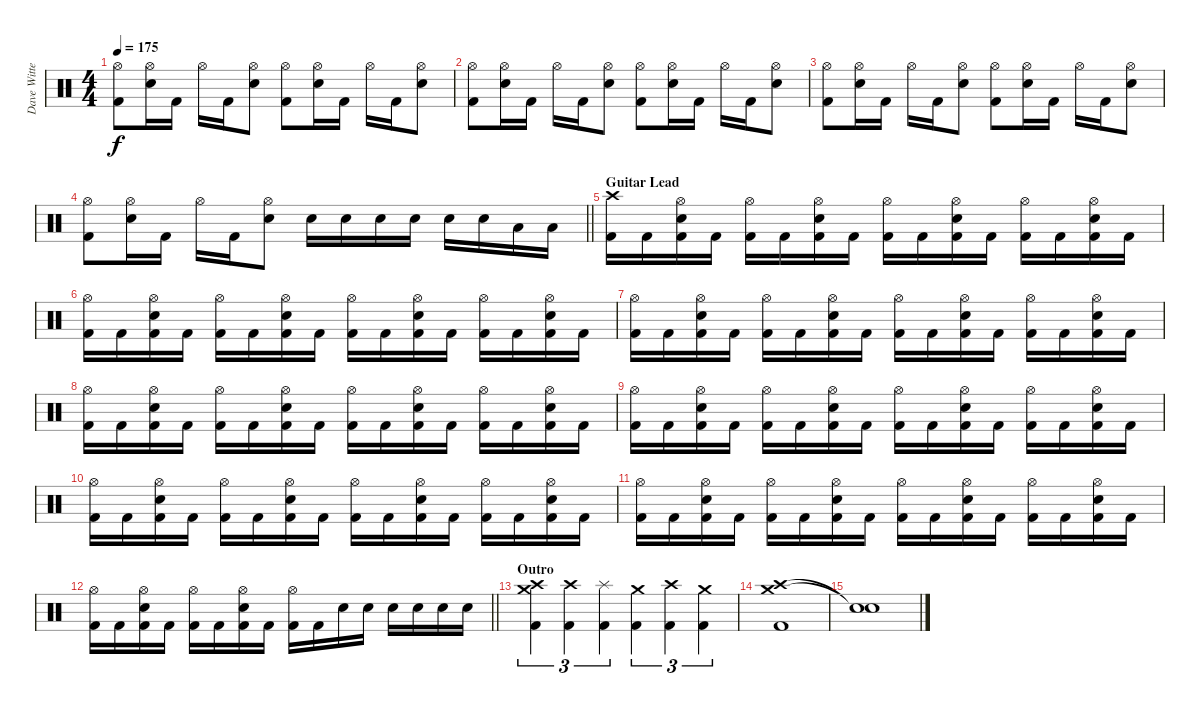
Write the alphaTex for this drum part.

\track ("Dave Witte" "Dave Witte") {instrument percussion}
\staff {score}
\articulation defaults
\ts (4 4)
\tempo 175
\clef neutral
\ks c
("Hi-Hat (open)" "Kick (hit) 2").8{dy f} ("Hi-Hat (open)" "Electric Snare (hit)").16 "Kick (hit) 2".16 "Hi-Hat (open)".16 "Kick (hit) 2".16 ("Hi-Hat (open)" "Electric Snare (hit)").8 ("Hi-Hat (open)" "Kick (hit) 2").8 ("Hi-Hat (open)" "Electric Snare (hit)").16 "Kick (hit) 2".16 "Hi-Hat (open)".16 "Kick (hit) 2".16 ("Hi-Hat (open)" "Electric Snare (hit)").8 |
("Hi-Hat (open)" "Kick (hit) 2").8 ("Hi-Hat (open)" "Electric Snare (hit)").16 "Kick (hit) 2".16 "Hi-Hat (open)".16 "Kick (hit) 2".16 ("Hi-Hat (open)" "Electric Snare (hit)").8 ("Hi-Hat (open)" "Kick (hit) 2").8 ("Hi-Hat (open)" "Electric Snare (hit)").16 "Kick (hit) 2".16 "Hi-Hat (open)".16 "Kick (hit) 2".16 ("Hi-Hat (open)" "Electric Snare (hit)").8 |
("Hi-Hat (open)" "Kick (hit) 2").8 ("Hi-Hat (open)" "Electric Snare (hit)").16 "Kick (hit) 2".16 "Hi-Hat (open)".16 "Kick (hit) 2".16 ("Hi-Hat (open)" "Electric Snare (hit)").8 ("Hi-Hat (open)" "Kick (hit) 2").8 ("Hi-Hat (open)" "Electric Snare (hit)").16 "Kick (hit) 2".16 "Hi-Hat (open)".16 "Kick (hit) 2".16 ("Hi-Hat (open)" "Electric Snare (hit)").8 |
\barLineRight lightlight
("Hi-Hat (open)" "Kick (hit) 2").8 ("Hi-Hat (open)" "Electric Snare (hit)").16 "Kick (hit) 2".16 "Hi-Hat (open)".16 "Kick (hit) 2".16 ("Hi-Hat (open)" "Electric Snare (hit)").8 "Electric Snare (hit)".16 "Electric Snare (hit)".16 "Electric Snare (hit)".16 "Electric Snare (hit)".16 "Electric Snare (hit)".16 "Electric Snare (hit)".16 "Low Tom (hit)".16 "Low Tom (hit)".16 |
\section ("" "Guitar Lead")
("Crash high (hit)" "Kick (hit) 2").16 "Kick (hit) 2".16 ("Hi-Hat (open)" "Electric Snare (hit)" "Kick (hit) 2").16 "Kick (hit) 2".16 ("Hi-Hat (open)" "Kick (hit) 2").16 "Kick (hit) 2".16 ("Hi-Hat (open)" "Electric Snare (hit)" "Kick (hit) 2").16 "Kick (hit) 2".16 ("Hi-Hat (open)" "Kick (hit) 2").16 "Kick (hit) 2".16 ("Hi-Hat (open)" "Electric Snare (hit)" "Kick (hit) 2").16 "Kick (hit) 2".16 ("Hi-Hat (open)" "Kick (hit) 2").16 "Kick (hit) 2".16 ("Hi-Hat (open)" "Electric Snare (hit)" "Kick (hit) 2").16 "Kick (hit) 2".16 |
("Hi-Hat (open)" "Kick (hit) 2").16 "Kick (hit) 2".16 ("Hi-Hat (open)" "Electric Snare (hit)" "Kick (hit) 2").16 "Kick (hit) 2".16 ("Hi-Hat (open)" "Kick (hit) 2").16 "Kick (hit) 2".16 ("Hi-Hat (open)" "Electric Snare (hit)" "Kick (hit) 2").16 "Kick (hit) 2".16 ("Hi-Hat (open)" "Kick (hit) 2").16 "Kick (hit) 2".16 ("Hi-Hat (open)" "Electric Snare (hit)" "Kick (hit) 2").16 "Kick (hit) 2".16 ("Hi-Hat (open)" "Kick (hit) 2").16 "Kick (hit) 2".16 ("Hi-Hat (open)" "Electric Snare (hit)" "Kick (hit) 2").16 "Kick (hit) 2".16 |
("Hi-Hat (open)" "Kick (hit) 2").16 "Kick (hit) 2".16 ("Hi-Hat (open)" "Electric Snare (hit)" "Kick (hit) 2").16 "Kick (hit) 2".16 ("Hi-Hat (open)" "Kick (hit) 2").16 "Kick (hit) 2".16 ("Hi-Hat (open)" "Electric Snare (hit)" "Kick (hit) 2").16 "Kick (hit) 2".16 ("Hi-Hat (open)" "Kick (hit) 2").16 "Kick (hit) 2".16 ("Hi-Hat (open)" "Electric Snare (hit)" "Kick (hit) 2").16 "Kick (hit) 2".16 ("Hi-Hat (open)" "Kick (hit) 2").16 "Kick (hit) 2".16 ("Hi-Hat (open)" "Electric Snare (hit)" "Kick (hit) 2").16 "Kick (hit) 2".16 |
("Hi-Hat (open)" "Kick (hit) 2").16 "Kick (hit) 2".16 ("Hi-Hat (open)" "Electric Snare (hit)" "Kick (hit) 2").16 "Kick (hit) 2".16 ("Hi-Hat (open)" "Kick (hit) 2").16 "Kick (hit) 2".16 ("Hi-Hat (open)" "Electric Snare (hit)" "Kick (hit) 2").16 "Kick (hit) 2".16 ("Hi-Hat (open)" "Kick (hit) 2").16 "Kick (hit) 2".16 ("Hi-Hat (open)" "Electric Snare (hit)" "Kick (hit) 2").16 "Kick (hit) 2".16 ("Hi-Hat (open)" "Kick (hit) 2").16 "Kick (hit) 2".16 ("Hi-Hat (open)" "Electric Snare (hit)" "Kick (hit) 2").16 "Kick (hit) 2".16 |
("Hi-Hat (open)" "Kick (hit) 2").16 "Kick (hit) 2".16 ("Hi-Hat (open)" "Electric Snare (hit)" "Kick (hit) 2").16 "Kick (hit) 2".16 ("Hi-Hat (open)" "Kick (hit) 2").16 "Kick (hit) 2".16 ("Hi-Hat (open)" "Electric Snare (hit)" "Kick (hit) 2").16 "Kick (hit) 2".16 ("Hi-Hat (open)" "Kick (hit) 2").16 "Kick (hit) 2".16 ("Hi-Hat (open)" "Electric Snare (hit)" "Kick (hit) 2").16 "Kick (hit) 2".16 ("Hi-Hat (open)" "Kick (hit) 2").16 "Kick (hit) 2".16 ("Hi-Hat (open)" "Electric Snare (hit)" "Kick (hit) 2").16 "Kick (hit) 2".16 |
("Hi-Hat (open)" "Kick (hit) 2").16 "Kick (hit) 2".16 ("Hi-Hat (open)" "Electric Snare (hit)" "Kick (hit) 2").16 "Kick (hit) 2".16 ("Hi-Hat (open)" "Kick (hit) 2").16 "Kick (hit) 2".16 ("Hi-Hat (open)" "Electric Snare (hit)" "Kick (hit) 2").16 "Kick (hit) 2".16 ("Hi-Hat (open)" "Kick (hit) 2").16 "Kick (hit) 2".16 ("Hi-Hat (open)" "Electric Snare (hit)" "Kick (hit) 2").16 "Kick (hit) 2".16 ("Hi-Hat (open)" "Kick (hit) 2").16 "Kick (hit) 2".16 ("Hi-Hat (open)" "Electric Snare (hit)" "Kick (hit) 2").16 "Kick (hit) 2".16 |
("Hi-Hat (open)" "Kick (hit) 2").16 "Kick (hit) 2".16 ("Hi-Hat (open)" "Electric Snare (hit)" "Kick (hit) 2").16 "Kick (hit) 2".16 ("Hi-Hat (open)" "Kick (hit) 2").16 "Kick (hit) 2".16 ("Hi-Hat (open)" "Electric Snare (hit)" "Kick (hit) 2").16 "Kick (hit) 2".16 ("Hi-Hat (open)" "Kick (hit) 2").16 "Kick (hit) 2".16 ("Hi-Hat (open)" "Electric Snare (hit)" "Kick (hit) 2").16 "Kick (hit) 2".16 ("Hi-Hat (open)" "Kick (hit) 2").16 "Kick (hit) 2".16 ("Hi-Hat (open)" "Electric Snare (hit)" "Kick (hit) 2").16 "Kick (hit) 2".16 |
\barLineRight lightlight
("Hi-Hat (open)" "Kick (hit) 2").16 "Kick (hit) 2".16 ("Hi-Hat (open)" "Electric Snare (hit)" "Kick (hit) 2").16 "Kick (hit) 2".16 ("Hi-Hat (open)" "Kick (hit) 2").16 "Kick (hit) 2".16 ("Hi-Hat (open)" "Electric Snare (hit)" "Kick (hit) 2").16 "Kick (hit) 2".16 ("Hi-Hat (open)" "Kick (hit) 2").16 "Kick (hit) 2".16 "Electric Snare (hit)".16 "Electric Snare (hit)".16 "Electric Snare (hit)".16 "Electric Snare (hit)".16 "Electric Snare (hit)".16 "Electric Snare (hit)".16 |
\section ("" "Outro")
("Crash medium (hit)" "Crash high (hit)" "Kick (hit) 2").4{tu (3 2)} ("Crash high (hit)" "Kick (hit) 2").4{tu (3 2)} ("Splash (hit)" "Kick (hit) 2").4{tu (3 2)} ("Crash medium (hit)" "Kick (hit) 2").4{tu (3 2)} ("Crash high (hit)" "Kick (hit) 2").4{tu (3 2)} ("Crash medium (hit)" "Kick (hit) 2").4{tu (3 2)} |
("Crash medium (hit)" "Crash high (hit)" "Kick (hit) 2").1 |
("Snare (hit)"{t} "Snare (hit)"{t}).1
